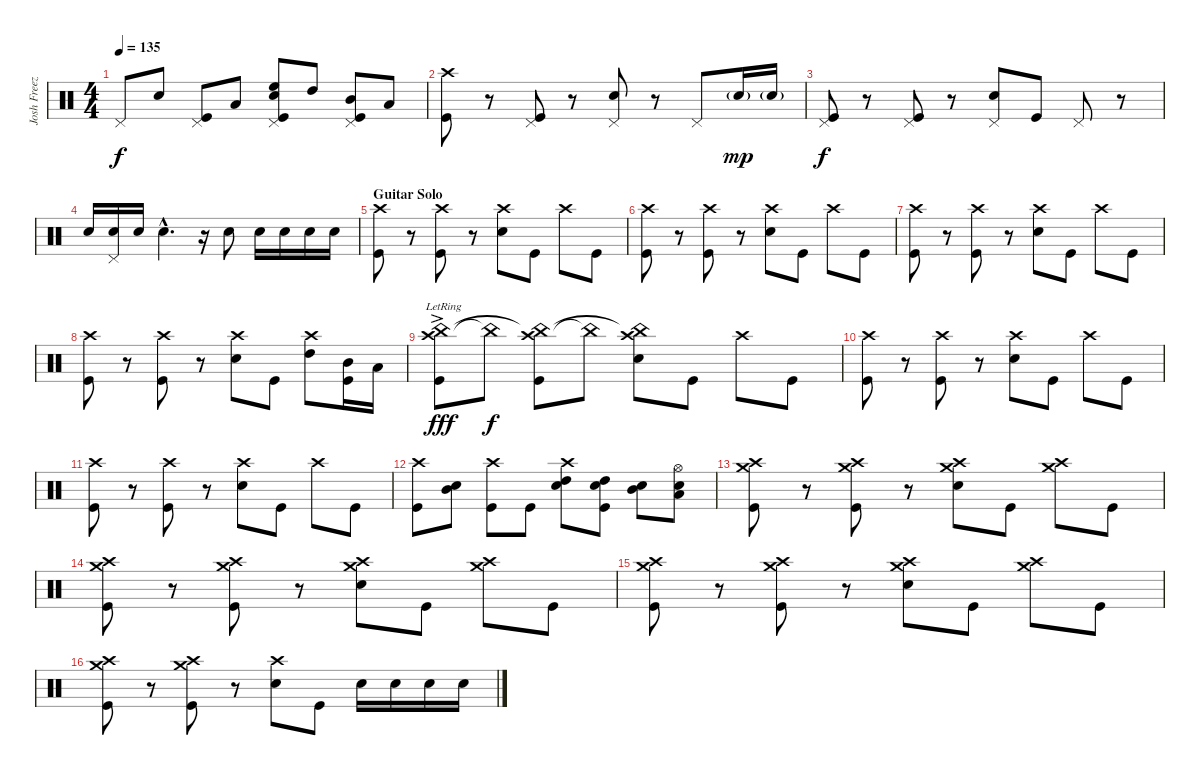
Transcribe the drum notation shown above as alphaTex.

\track ("Josh Freeze" "Josh Freez") {instrument percussion}
\staff {score}
\articulation defaults
\ts (4 4)
\tempo 135
\clef neutral
\ks c "Pedal Hi-Hat (hit)".8{dy f} "Electric Snare (hit)".8
("Pedal Hi-Hat (hit)" "Kick (hit)").8 "Low Tom (hit)".8 ("Pedal Hi-Hat (hit)" "High Floor Tom (hit)" "Electric Snare (hit)" "Kick (hit)").8 "High Tom (hit)".8 ("Pedal Hi-Hat (hit)" "Mid Tom (hit)" "Kick (hit)").8 "Low Tom (hit)".8 |
("Crash high (hit)" "Kick (hit)").8 r.8 ("Pedal Hi-Hat (hit)" "Kick (hit)").8 r.8 ("Pedal Hi-Hat (hit)" "Electric Snare (hit)").8 r.8 "Pedal Hi-Hat (hit)".8 "Electric Snare (hit)"{g}.16{dy mp} "Electric Snare (hit)"{g}.16 |
("Pedal Hi-Hat (hit)" "Kick (hit)").8{dy f} r.8 ("Pedal Hi-Hat (hit)" "Kick (hit)").8 r.8 ("Pedal Hi-Hat (hit)" "Electric Snare (hit)").8 "Kick (hit)".8 "Pedal Hi-Hat (hit)".8 r.8 |
"Electric Snare (hit)".16 ("Pedal Hi-Hat (hit)" "Electric Snare (hit)").16 "Electric Snare (hit)".16 "Electric Snare (hit)"{hac}.4{d} r.16 "Electric Snare (hit)".8 "Electric Snare (hit)".16 "Electric Snare (hit)".16 "Electric Snare (hit)".16 "Electric Snare (hit)".16 |
\section ("" "Guitar Solo")
("Crash high (hit)" "Kick (hit)").8 r.8 ("Crash high (hit)" "Kick (hit)").8 r.8 ("Crash high (hit)" "Electric Snare (hit)").8 "Kick (hit)".8 "Crash high (hit)".8 "Kick (hit)".8 |
("Crash high (hit)" "Kick (hit)").8 r.8 ("Crash high (hit)" "Kick (hit)").8 r.8 ("Crash high (hit)" "Electric Snare (hit)").8 "Kick (hit)".8 "Crash high (hit)".8 "Kick (hit)".8 |
("Crash high (hit)" "Kick (hit)").8 r.8 ("Crash high (hit)" "Kick (hit)").8 r.8 ("Crash high (hit)" "Electric Snare (hit)").8 "Kick (hit)".8 "Crash high (hit)".8 "Kick (hit)".8 |
("Crash high (hit)" "Kick (hit)").8 r.8 ("Crash high (hit)" "Kick (hit)").8 r.8 ("Crash high (hit)" "Electric Snare (hit)").8 "Kick (hit)".8 ("Crash high (hit)" "High Tom (hit)").8 ("Mid Tom (hit)" "Kick (hit)").16 "Low Tom (hit)".16 |
("Crash high (hit)" "China (hit)"{ac lr} "Kick (hit)").8{dy fff} "China (hit)"{t}.8{dy f} ("Crash high (hit)" "China (hit)"{t} "Kick (hit)").8 "China (hit)"{t}.8 ("Crash high (hit)" "China (hit)"{t} "Electric Snare (hit)").8 "Kick (hit)".8 "Crash high (hit)".8 "Kick (hit)".8 |
("Crash high (hit)" "Kick (hit)").8 r.8 ("Crash high (hit)" "Kick (hit)").8 r.8 ("Crash high (hit)" "Electric Snare (hit)").8 "Kick (hit)".8 "Crash high (hit)".8 "Kick (hit)".8 |
("Crash high (hit)" "Kick (hit)").8 r.8 ("Crash high (hit)" "Kick (hit)").8 r.8 ("Crash high (hit)" "Electric Snare (hit)").8 "Kick (hit)".8 "Crash high (hit)".8 "Kick (hit)".8 |
("Crash high (hit)" "Kick (hit)").8 ("Mid Tom (hit)" "Electric Snare (hit)").8 ("Crash high (hit)" "Kick (hit)").8 "Kick (hit)".8 ("Crash high (hit)" "High Tom (hit)" "Electric Snare (hit)").8 ("High Tom (hit)" "Electric Snare (hit)" "Kick (hit)").8 ("Mid Tom (hit)" "Electric Snare (hit)").8 ("Hi-Hat (open)" "Low Tom (hit)" "Electric Snare (hit)").8 |
("Crash high (hit)" "Crash medium (hit)" "Kick (hit)").8 r.8 ("Crash high (hit)" "Crash medium (hit)" "Kick (hit)").8 r.8 ("Crash high (hit)" "Crash medium (hit)" "Electric Snare (hit)").8 "Kick (hit)".8 ("Crash high (hit)" "Crash medium (hit)").8 "Kick (hit)".8 |
("Crash high (hit)" "Crash medium (hit)" "Kick (hit)").8 r.8 ("Crash high (hit)" "Crash medium (hit)" "Kick (hit)").8 r.8 ("Crash high (hit)" "Crash medium (hit)" "Electric Snare (hit)").8 "Kick (hit)".8 ("Crash high (hit)" "Crash medium (hit)").8 "Kick (hit)".8 |
("Crash high (hit)" "Crash medium (hit)" "Kick (hit)").8 r.8 ("Crash high (hit)" "Crash medium (hit)" "Kick (hit)").8 r.8 ("Crash high (hit)" "Crash medium (hit)" "Electric Snare (hit)").8 "Kick (hit)".8 ("Crash high (hit)" "Crash medium (hit)").8 "Kick (hit)".8 |
("Crash high (hit)" "Crash medium (hit)" "Kick (hit)").8 r.8 ("Crash high (hit)" "Crash medium (hit)" "Kick (hit)").8 r.8 ("Crash high (hit)" "Electric Snare (hit)").8 "Kick (hit)".8 "Electric Snare (hit)".16 "Electric Snare (hit)".16 "Electric Snare (hit)".16 "Electric Snare (hit)".16
